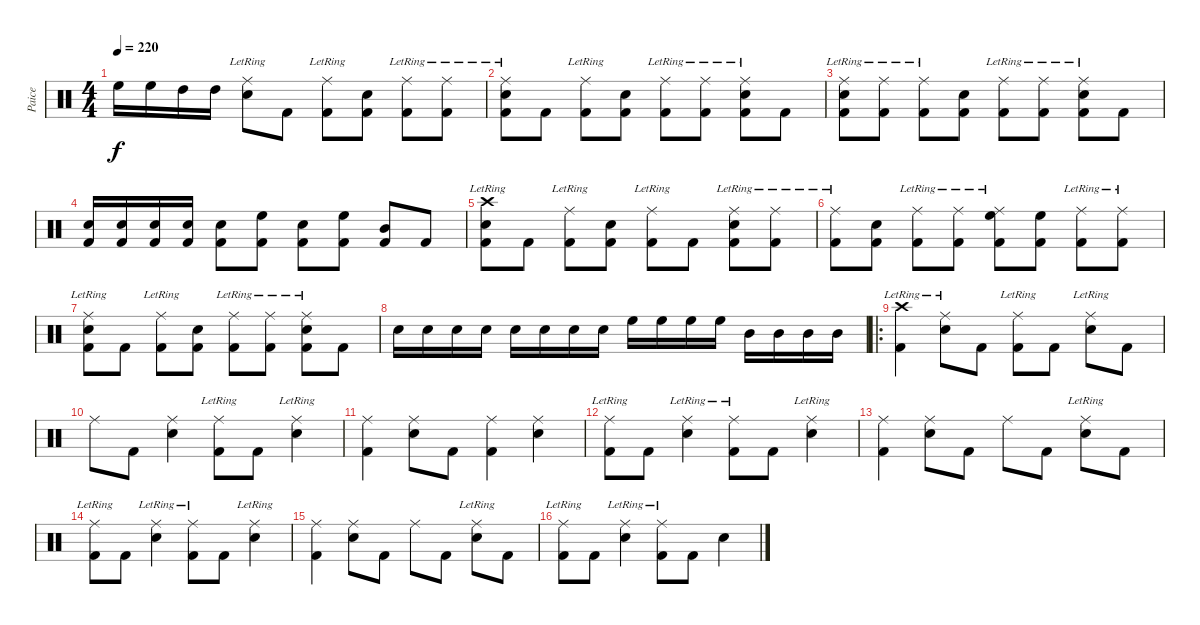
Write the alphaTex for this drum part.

\track ("Paice" "Paice") {instrument percussion}
\staff {score}
\articulation defaults
\ts (4 4)
\tempo 220
\clef neutral
\ks c "High Floor Tom (hit)".16{dy f} "High Floor Tom (hit)".16 "High Tom (hit)".16 "High Tom (hit)".16
("Ride (middle)"{lr} "Snare (hit) 2").8 "Kick (hit) 2".8 ("Ride (middle)"{lr} "Kick (hit) 2").8 ("Snare (hit) 2" "Kick (hit) 2").8 ("Ride (middle)"{lr} "Kick (hit) 2").8 ("Ride (middle)"{lr} "Kick (hit) 2").8 |
("Ride (middle)"{lr} "Snare (hit) 2" "Kick (hit) 2").8 "Kick (hit) 2".8 ("Ride (middle)"{lr} "Kick (hit) 2").8 ("Snare (hit) 2" "Kick (hit) 2").8 ("Ride (middle)"{lr} "Kick (hit) 2").8 ("Ride (middle)"{lr} "Kick (hit) 2").8 ("Ride (middle)"{lr} "Snare (hit) 2" "Kick (hit) 2").8 "Kick (hit) 2".8 |
("Ride (middle)"{lr} "Snare (hit) 2" "Kick (hit) 2").8 ("Ride (middle)"{lr} "Kick (hit) 2").8 ("Ride (middle)"{lr} "Kick (hit) 2").8 ("Snare (hit) 2" "Kick (hit) 2").8 ("Ride (middle)"{lr} "Kick (hit) 2").8 ("Ride (middle)"{lr} "Kick (hit) 2").8 ("Ride (middle)"{lr} "Snare (hit) 2" "Kick (hit) 2").8 "Kick (hit) 2".8 |
("Snare (hit) 2" "Kick (hit) 2").16 ("Snare (hit) 2" "Kick (hit) 2").16 ("Snare (hit) 2" "Kick (hit) 2").16 ("Snare (hit) 2" "Kick (hit) 2").16 ("Snare (hit) 2" "Kick (hit) 2").8 ("High Floor Tom (hit)" "Kick (hit) 2").8 ("Snare (hit) 2" "Kick (hit) 2").8 ("High Floor Tom (hit)" "Kick (hit) 2").8 ("Mid Tom (hit)" "Kick (hit) 2").8 "Kick (hit) 2".8 |
("Crash high (hit)"{lr} "Snare (hit) 2" "Kick (hit) 2").8 "Kick (hit) 2".8 ("Ride (middle)"{lr} "Kick (hit) 2").8 ("Snare (hit) 2" "Kick (hit) 2").8 ("Ride (middle)"{lr} "Kick (hit) 2").8 "Kick (hit) 2".8 ("Ride (middle)"{lr} "Snare (hit) 2" "Kick (hit) 2").8 ("Ride (middle)"{lr} "Kick (hit) 2").8 |
("Ride (middle)"{lr} "Kick (hit) 2").8 ("Snare (hit) 2" "Kick (hit) 2").8 ("Ride (middle)"{lr} "Kick (hit) 2").8 ("Ride (middle)"{lr} "Kick (hit) 2").8 ("Ride (middle)"{lr} "High Floor Tom (hit)" "Kick (hit) 2").8 ("High Floor Tom (hit)" "Kick (hit) 2").8 ("Ride (middle)"{lr} "Kick (hit) 2").8 ("Ride (middle)"{lr} "Kick (hit) 2").8 |
("Ride (middle)"{lr} "Snare (hit) 2" "Kick (hit) 2").8 "Kick (hit) 2".8 ("Ride (middle)"{lr} "Kick (hit) 2").8 ("Snare (hit) 2" "Kick (hit) 2").8 ("Ride (middle)"{lr} "Kick (hit) 2").8 ("Ride (middle)"{lr} "Kick (hit) 2").8 ("Ride (middle)"{lr} "Snare (hit) 2" "Kick (hit) 2").8 "Kick (hit) 2".8 |
"Snare (hit) 2".16 "Snare (hit) 2".16 "Snare (hit) 2".16 "Snare (hit) 2".16 "Snare (hit) 2".16 "Snare (hit) 2".16 "Snare (hit) 2".16 "Snare (hit) 2".16 "High Floor Tom (hit)".16 "High Floor Tom (hit)".16 "High Floor Tom (hit)".16 "High Floor Tom (hit)".16 "Mid Tom (hit)".16 "Mid Tom (hit)".16 "Mid Tom (hit)".16 "Mid Tom (hit)".16 |
\ro
("Crash high (hit)"{lr} "Kick (hit) 2").4 ("Ride (middle)"{lr} "Snare (hit) 2").8 "Kick (hit) 2".8 ("Ride (middle)"{lr} "Kick (hit) 2").8 "Kick (hit) 2".8 ("Ride (middle)"{lr} "Snare (hit) 2").8 "Kick (hit) 2".8 |
"Ride (middle)".8 "Kick (hit) 2".8 ("Ride (middle)" "Snare (hit) 2").4 ("Ride (middle)"{lr} "Kick (hit) 2").8 "Kick (hit) 2".8 ("Ride (middle)"{lr} "Snare (hit) 2").4 |
("Ride (middle)" "Kick (hit) 2").4 ("Ride (middle)" "Snare (hit) 2").8 "Kick (hit) 2".8 ("Ride (middle)" "Kick (hit) 2").4 ("Ride (middle)" "Snare (hit) 2").4 |
("Ride (middle)"{lr} "Kick (hit) 2").8 "Kick (hit) 2".8 ("Ride (middle)"{lr} "Snare (hit) 2").4 ("Ride (middle)"{lr} "Kick (hit) 2").8 "Kick (hit) 2".8 ("Ride (middle)"{lr} "Snare (hit) 2").4 |
("Ride (middle)" "Kick (hit) 2").4 ("Ride (middle)" "Snare (hit) 2").8 "Kick (hit) 2".8 "Ride (middle)".8 "Kick (hit) 2".8 ("Ride (middle)"{lr} "Snare (hit) 2").8 "Kick (hit) 2".8 |
("Ride (middle)"{lr} "Kick (hit) 2").8 "Kick (hit) 2".8 ("Ride (middle)"{lr} "Snare (hit) 2").4 ("Ride (middle)"{lr} "Kick (hit) 2").8 "Kick (hit) 2".8 ("Ride (middle)"{lr} "Snare (hit) 2").4 |
("Ride (middle)" "Kick (hit) 2").4 ("Ride (middle)" "Snare (hit) 2").8 "Kick (hit) 2".8 "Ride (middle)".8 "Kick (hit) 2".8 ("Ride (middle)"{lr} "Snare (hit) 2").8 "Kick (hit) 2".8 |
("Ride (middle)"{lr} "Kick (hit) 2").8 "Kick (hit) 2".8 ("Ride (middle)"{lr} "Snare (hit) 2").4 ("Ride (middle)"{lr} "Kick (hit) 2").8 "Kick (hit) 2".8 "Snare (hit) 2".4
